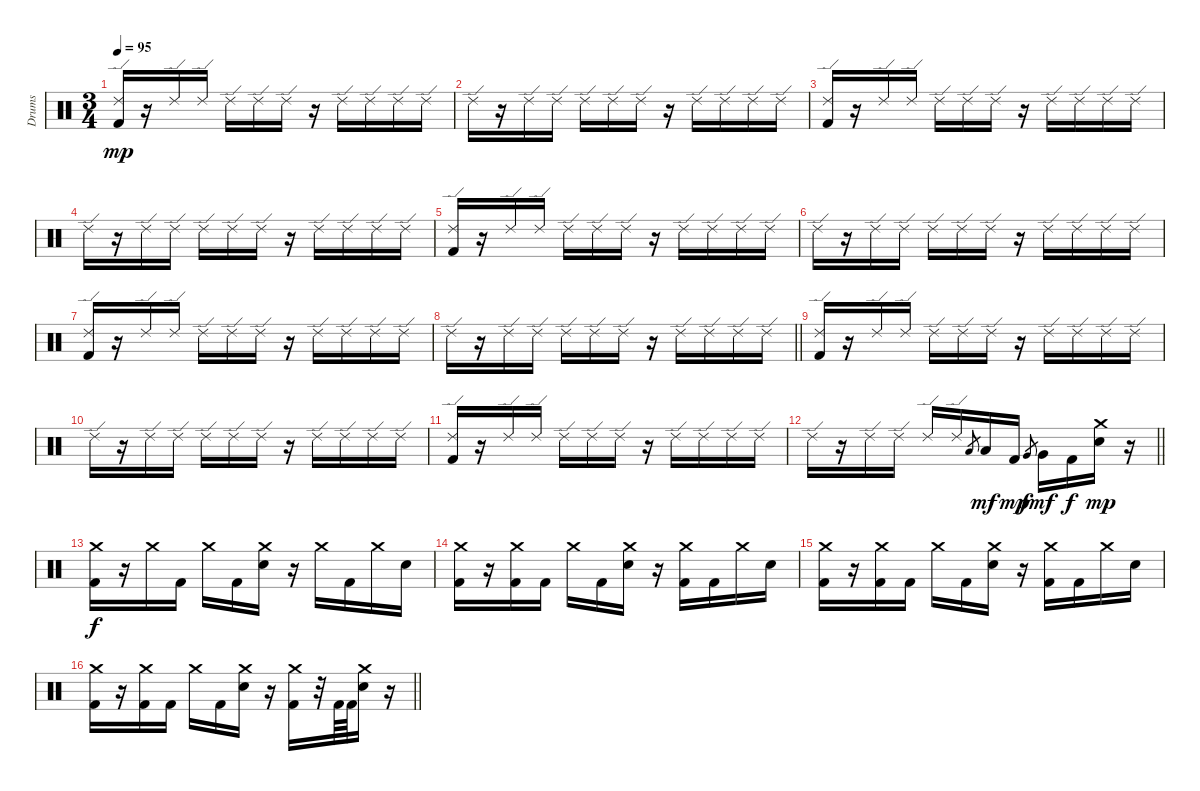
\track ("Drums" "Drums") {instrument percussion}
\staff {score}
\articulation defaults
\ts (3 4)
\tempo 95
\clef neutral
\ks c
("Ride (edge) 2" "Kick (hit) 2").16{dy mp} r.16 "Ride (edge) 2".16 "Ride (edge) 2".16 "Ride (edge) 2".16 "Ride (edge) 2".16 "Ride (edge) 2".16 r.16 "Ride (edge) 2".16 "Ride (edge) 2".16 "Ride (edge) 2".16 "Ride (edge) 2".16 |
"Ride (edge) 2".16 r.16 "Ride (edge) 2".16 "Ride (edge) 2".16 "Ride (edge) 2".16 "Ride (edge) 2".16 "Ride (edge) 2".16 r.16 "Ride (edge) 2".16 "Ride (edge) 2".16 "Ride (edge) 2".16 "Ride (edge) 2".16 |
("Kick (hit) 2" "Ride (edge) 2").16 r.16 "Ride (edge) 2".16 "Ride (edge) 2".16 "Ride (edge) 2".16 "Ride (edge) 2".16 "Ride (edge) 2".16 r.16 "Ride (edge) 2".16 "Ride (edge) 2".16 "Ride (edge) 2".16 "Ride (edge) 2".16 |
"Ride (edge) 2".16 r.16 "Ride (edge) 2".16 "Ride (edge) 2".16 "Ride (edge) 2".16 "Ride (edge) 2".16 "Ride (edge) 2".16 r.16 "Ride (edge) 2".16 "Ride (edge) 2".16 "Ride (edge) 2".16 "Ride (edge) 2".16 |
("Ride (edge) 2" "Kick (hit) 2").16 r.16 "Ride (edge) 2".16 "Ride (edge) 2".16 "Ride (edge) 2".16 "Ride (edge) 2".16 "Ride (edge) 2".16 r.16 "Ride (edge) 2".16 "Ride (edge) 2".16 "Ride (edge) 2".16 "Ride (edge) 2".16 |
"Ride (edge) 2".16 r.16 "Ride (edge) 2".16 "Ride (edge) 2".16 "Ride (edge) 2".16 "Ride (edge) 2".16 "Ride (edge) 2".16 r.16 "Ride (edge) 2".16 "Ride (edge) 2".16 "Ride (edge) 2".16 "Ride (edge) 2".16 |
("Kick (hit) 2" "Ride (edge) 2").16 r.16 "Ride (edge) 2".16 "Ride (edge) 2".16 "Ride (edge) 2".16 "Ride (edge) 2".16 "Ride (edge) 2".16 r.16 "Ride (edge) 2".16 "Ride (edge) 2".16 "Ride (edge) 2".16 "Ride (edge) 2".16 |
\barLineRight lightlight "Ride (edge) 2".16
r.16 "Ride (edge) 2".16 "Ride (edge) 2".16 "Ride (edge) 2".16 "Ride (edge) 2".16 "Ride (edge) 2".16 r.16 "Ride (edge) 2".16 "Ride (edge) 2".16 "Ride (edge) 2".16 "Ride (edge) 2".16 |
("Ride (edge) 2" "Kick (hit) 2").16 r.16 "Ride (edge) 2".16 "Ride (edge) 2".16 "Ride (edge) 2".16 "Ride (edge) 2".16 "Ride (edge) 2".16 r.16 "Ride (edge) 2".16 "Ride (edge) 2".16 "Ride (edge) 2".16 "Ride (edge) 2".16 |
"Ride (edge) 2".16 r.16 "Ride (edge) 2".16 "Ride (edge) 2".16 "Ride (edge) 2".16 "Ride (edge) 2".16 "Ride (edge) 2".16 r.16 "Ride (edge) 2".16 "Ride (edge) 2".16 "Ride (edge) 2".16 "Ride (edge) 2".16 |
("Kick (hit) 2" "Ride (edge) 2").16 r.16 "Ride (edge) 2".16 "Ride (edge) 2".16 "Ride (edge) 2".16 "Ride (edge) 2".16 "Ride (edge) 2".16 r.16 "Ride (edge) 2".16 "Ride (edge) 2".16 "Ride (edge) 2".16 "Ride (edge) 2".16 |
\barLineRight lightlight "Ride (edge) 2".16
r.16 "Ride (edge) 2".16 "Ride (edge) 2".16 "Ride (edge) 2".16 "Ride (edge) 2".16 "Low Tom (hit)".8{gr} "Low Tom (hit)".16{dy mf} "Kick (hit) 2".16{dy mp} "Very Low Tom (hit)".8{gr dy f} "Very Low Tom (hit)".16{dy mf} "Kick (hit) 2".16{dy f} ("Crash medium (hit)" "Electric Snare (hit)").16{dy mp} r.16 |
\section ("" "")
("Crash medium (hit)" "Kick (hit) 2").16{dy f} r.16 "Crash medium (hit)".16 "Kick (hit) 2".16 "Crash medium (hit)".16 "Kick (hit) 2".16 ("Crash medium (hit)" "Electric Snare (hit)").16 r.16 "Crash medium (hit)".16 "Kick (hit) 2".16 "Crash medium (hit)".16 "Electric Snare (hit)".16 |
("Crash medium (hit)" "Kick (hit) 2").16 r.16 ("Crash medium (hit)" "Kick (hit) 2").16 "Kick (hit) 2".16 "Crash medium (hit)".16 "Kick (hit) 2".16 ("Crash medium (hit)" "Electric Snare (hit)").16 r.16 ("Crash medium (hit)" "Kick (hit) 2").16 "Kick (hit) 2".16 "Crash medium (hit)".16 "Electric Snare (hit)".16 |
("Crash medium (hit)" "Kick (hit) 2").16 r.16 ("Crash medium (hit)" "Kick (hit) 2").16 "Kick (hit) 2".16 "Crash medium (hit)".16 "Kick (hit) 2".16 ("Crash medium (hit)" "Electric Snare (hit)").16 r.16 ("Crash medium (hit)" "Kick (hit) 2").16 "Kick (hit) 2".16 "Crash medium (hit)".16 "Electric Snare (hit)".16 |
\barLineRight lightlight
("Crash medium (hit)" "Kick (hit) 2").16 r.16 ("Crash medium (hit)" "Kick (hit) 2").16 "Kick (hit) 2".16 "Crash medium (hit)".16 "Kick (hit) 2".16 ("Crash medium (hit)" "Electric Snare (hit)").16 r.16 ("Crash medium (hit)" "Kick (hit) 2").16 r.32 "Kick (hit) 2".64 "Kick (hit) 2".64 ("Crash medium (hit)" "Electric Snare (hit)").16 r.16
